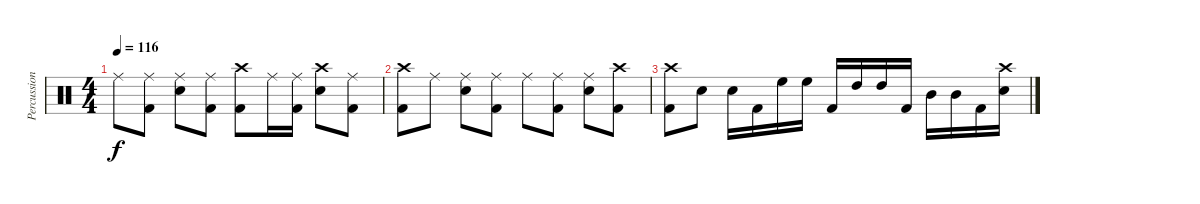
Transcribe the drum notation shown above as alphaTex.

\track ("Percussion" "Percussion") {instrument percussion}
\staff {score}
\articulation defaults
\ts (4 4)
\tempo 116
\clef neutral
\ks c "Ride (middle)".8{dy f}
("Ride (middle)" "Kick (hit) 2").8 ("Ride (middle)" "Snare (hit) 2").8 ("Ride (middle)" "Kick (hit) 2").8 ("Crash high (hit)" "Kick (hit) 2").8 "Ride (middle)".16 ("Ride (middle)" "Kick (hit) 2").16 ("Crash high (hit)" "Snare (hit) 2").8 ("Ride (middle)" "Kick (hit) 2").8 |
("Crash high (hit)" "Kick (hit) 2").8 "Ride (middle)".8 ("Ride (middle)" "Snare (hit) 2").8 ("Ride (middle)" "Kick (hit) 2").8 "Ride (middle)".8 ("Ride (middle)" "Kick (hit) 2").8 ("Ride (middle)" "Snare (hit) 2").8 ("Crash high (hit)" "Kick (hit) 2").8 |
("Crash high (hit)" "Kick (hit) 2").8 "Snare (hit) 2".8 "Snare (hit) 2".16 "Kick (hit) 2".16 "High Floor Tom (hit)".16 "High Floor Tom (hit)".16 "Kick (hit) 2".16 "High Tom (hit)".16 "High Tom (hit)".16 "Kick (hit) 2".16 "Mid Tom (hit)".16 "Mid Tom (hit)".16 "Kick (hit) 2".16 ("Crash high (hit)" "Snare (hit) 2").16
